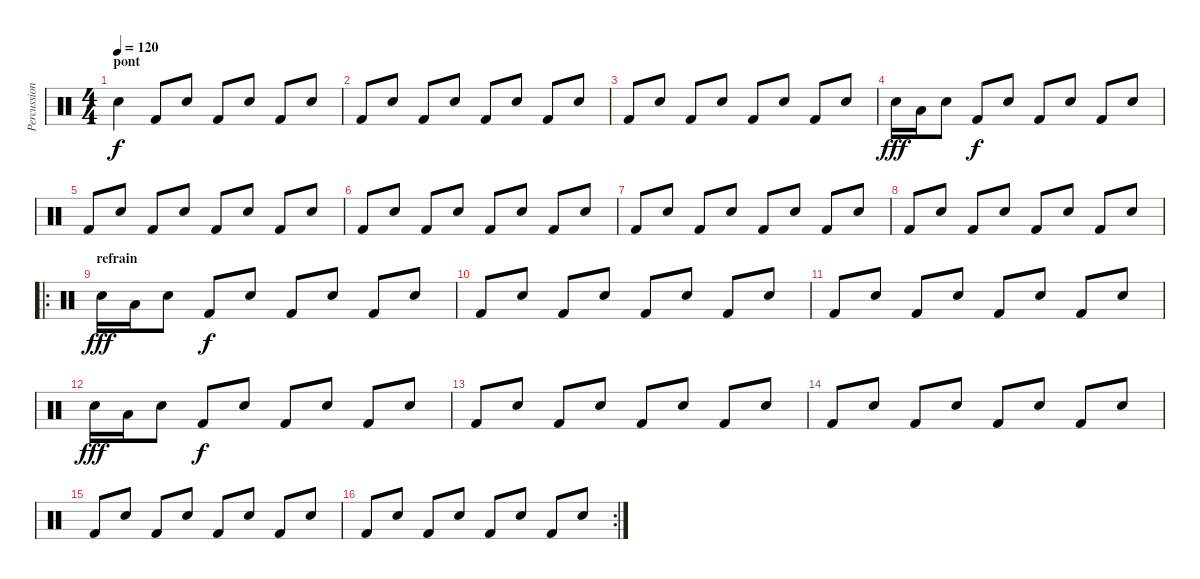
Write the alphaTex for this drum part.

\track ("Percussions-Vlad" "Percussion") {instrument percussion}
\staff {score}
\articulation defaults
\ts (4 4)
\section ("" "pont")
\tempo 120
\clef neutral
\ks c "Electric Snare (hit)".4{dy f} "Kick (hit) 2".8 "Electric Snare (hit)".8 "Kick (hit) 2".8 "Electric Snare (hit)".8 "Kick (hit) 2".8 "Electric Snare (hit)".8
|
"Kick (hit) 2".8 "Electric Snare (hit)".8 "Kick (hit) 2".8 "Electric Snare (hit)".8 "Kick (hit) 2".8 "Electric Snare (hit)".8 "Kick (hit) 2".8 "Electric Snare (hit)".8 |
"Kick (hit) 2".8 "Electric Snare (hit)".8 "Kick (hit) 2".8 "Electric Snare (hit)".8 "Kick (hit) 2".8 "Electric Snare (hit)".8 "Kick (hit) 2".8 "Electric Snare (hit)".8 |
"Electric Snare (hit)".16{dy fff} "Low Tom (hit)".16 "Electric Snare (hit)".8 "Kick (hit) 2".8{dy f} "Electric Snare (hit)".8 "Kick (hit) 2".8 "Electric Snare (hit)".8 "Kick (hit) 2".8 "Electric Snare (hit)".8 |
"Kick (hit) 2".8 "Electric Snare (hit)".8 "Kick (hit) 2".8 "Electric Snare (hit)".8 "Kick (hit) 2".8 "Electric Snare (hit)".8 "Kick (hit) 2".8 "Electric Snare (hit)".8 |
"Kick (hit) 2".8 "Electric Snare (hit)".8 "Kick (hit) 2".8 "Electric Snare (hit)".8 "Kick (hit) 2".8 "Electric Snare (hit)".8 "Kick (hit) 2".8 "Electric Snare (hit)".8 |
"Kick (hit) 2".8 "Electric Snare (hit)".8 "Kick (hit) 2".8 "Electric Snare (hit)".8 "Kick (hit) 2".8 "Electric Snare (hit)".8 "Kick (hit) 2".8 "Electric Snare (hit)".8 |
"Kick (hit) 2".8 "Electric Snare (hit)".8 "Kick (hit) 2".8 "Electric Snare (hit)".8 "Kick (hit) 2".8 "Electric Snare (hit)".8 "Kick (hit) 2".8 "Electric Snare (hit)".8 |
\ro
\section ("" "refrain")
"Electric Snare (hit)".16{dy fff} "Low Tom (hit)".16 "Electric Snare (hit)".8 "Kick (hit) 2".8{dy f} "Electric Snare (hit)".8 "Kick (hit) 2".8 "Electric Snare (hit)".8 "Kick (hit) 2".8 "Electric Snare (hit)".8 |
"Kick (hit) 2".8 "Electric Snare (hit)".8 "Kick (hit) 2".8 "Electric Snare (hit)".8 "Kick (hit) 2".8 "Electric Snare (hit)".8 "Kick (hit) 2".8 "Electric Snare (hit)".8 |
"Kick (hit) 2".8 "Electric Snare (hit)".8 "Kick (hit) 2".8 "Electric Snare (hit)".8 "Kick (hit) 2".8 "Electric Snare (hit)".8 "Kick (hit) 2".8 "Electric Snare (hit)".8 |
"Electric Snare (hit)".16{dy fff} "Low Tom (hit)".16 "Electric Snare (hit)".8 "Kick (hit) 2".8{dy f} "Electric Snare (hit)".8 "Kick (hit) 2".8 "Electric Snare (hit)".8 "Kick (hit) 2".8 "Electric Snare (hit)".8 |
"Kick (hit) 2".8 "Electric Snare (hit)".8 "Kick (hit) 2".8 "Electric Snare (hit)".8 "Kick (hit) 2".8 "Electric Snare (hit)".8 "Kick (hit) 2".8 "Electric Snare (hit)".8 |
"Kick (hit) 2".8 "Electric Snare (hit)".8 "Kick (hit) 2".8 "Electric Snare (hit)".8 "Kick (hit) 2".8 "Electric Snare (hit)".8 "Kick (hit) 2".8 "Electric Snare (hit)".8 |
"Kick (hit) 2".8 "Electric Snare (hit)".8 "Kick (hit) 2".8 "Electric Snare (hit)".8 "Kick (hit) 2".8 "Electric Snare (hit)".8 "Kick (hit) 2".8 "Electric Snare (hit)".8 |
\rc 2 "Kick (hit) 2".8 "Electric Snare (hit)".8 "Kick (hit) 2".8 "Electric Snare (hit)".8 "Kick (hit) 2".8 "Electric Snare (hit)".8 "Kick (hit) 2".8 "Electric Snare (hit)".8
